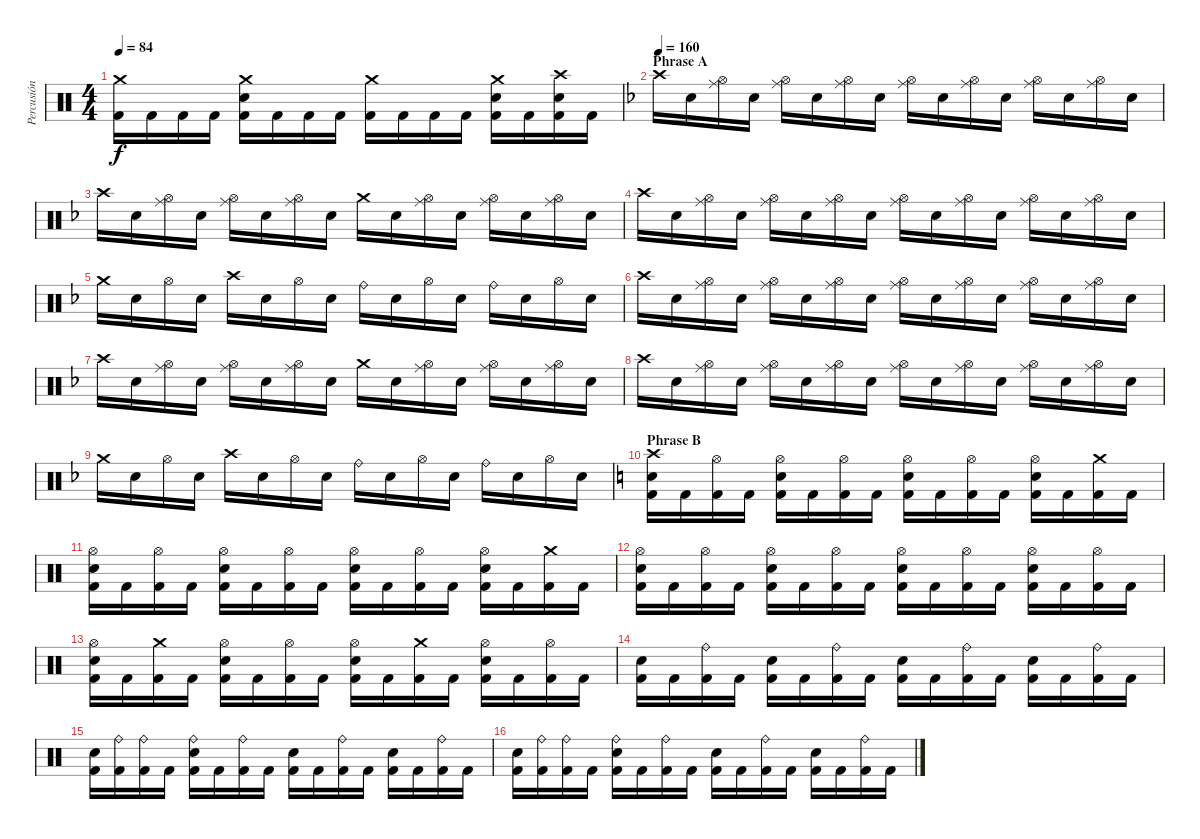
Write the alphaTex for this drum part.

\track ("Percusión" "Percusión") {instrument percussion}
\staff {score}
\articulation defaults
\ts (4 4)
\tempo 84
\clef neutral
\ks c
("Crash medium (hit)" "Kick (hit) 2").16{dy f} "Kick (hit) 2".16 "Kick (hit) 2".16 "Kick (hit) 2".16 ("Crash medium (hit)" "Electric Snare (hit)" "Kick (hit) 2").16 "Kick (hit) 2".16 "Kick (hit) 2".16 "Kick (hit) 2".16 ("Crash medium (hit)" "Kick (hit) 2").16 "Kick (hit) 2".16 "Kick (hit) 2".16 "Kick (hit) 2".16 ("Crash medium (hit)" "Electric Snare (hit)" "Kick (hit) 2").16 "Kick (hit) 2".16 ("Crash high (hit)" "Electric Snare (hit)" "Kick (hit) 2").16 "Kick (hit) 2".16 |
\section ("" "Phrase A")
\tempo 160
\ks f "Crash high (hit)".16 "Electric Snare (hit)".16
("Ride (middle)" "Hi-Hat (open)").16 "Electric Snare (hit)".16 ("Ride (middle)" "Hi-Hat (open)").16 "Electric Snare (hit)".16 ("Ride (middle)" "Hi-Hat (open)").16 "Electric Snare (hit)".16 ("Ride (middle)" "Hi-Hat (open)").16 "Electric Snare (hit)".16 ("Ride (middle)" "Hi-Hat (open)").16 "Electric Snare (hit)".16 ("Ride (middle)" "Hi-Hat (open)").16 "Electric Snare (hit)".16 ("Ride (middle)" "Hi-Hat (open)").16 "Electric Snare (hit)".16 |
"Crash high (hit)".16 "Electric Snare (hit)".16 ("Ride (middle)" "Hi-Hat (open)").16 "Electric Snare (hit)".16 ("Ride (middle)" "Hi-Hat (open)").16 "Electric Snare (hit)".16 ("Ride (middle)" "Hi-Hat (open)").16 "Electric Snare (hit)".16 "Crash medium (hit)".16 "Electric Snare (hit)".16 ("Ride (middle)" "Hi-Hat (open)").16 "Electric Snare (hit)".16 ("Ride (middle)" "Hi-Hat (open)").16 "Electric Snare (hit)".16 ("Ride (middle)" "Hi-Hat (open)").16 "Electric Snare (hit)".16 |
"Crash high (hit)".16 "Electric Snare (hit)".16 ("Ride (middle)" "Hi-Hat (open)").16 "Electric Snare (hit)".16 ("Ride (middle)" "Hi-Hat (open)").16 "Electric Snare (hit)".16 ("Ride (middle)" "Hi-Hat (open)").16 "Electric Snare (hit)".16 ("Ride (middle)" "Hi-Hat (open)").16 "Electric Snare (hit)".16 ("Ride (middle)" "Hi-Hat (open)").16 "Electric Snare (hit)".16 ("Ride (middle)" "Hi-Hat (open)").16 "Electric Snare (hit)".16 ("Ride (middle)" "Hi-Hat (open)").16 "Electric Snare (hit)".16 |
"Crash medium (hit)".16 "Electric Snare (hit)".16 "Hi-Hat (open)".16 "Electric Snare (hit)".16 "Crash high (hit)".16 "Electric Snare (hit)".16 "Hi-Hat (open)".16 "Electric Snare (hit)".16 "Ride (bell)".16 "Electric Snare (hit)".16 "Hi-Hat (open)".16 "Electric Snare (hit)".16 "Ride (bell)".16 "Electric Snare (hit)".16 "Hi-Hat (open)".16 "Electric Snare (hit)".16 |
"Crash high (hit)".16 "Electric Snare (hit)".16 ("Ride (middle)" "Hi-Hat (open)").16 "Electric Snare (hit)".16 ("Ride (middle)" "Hi-Hat (open)").16 "Electric Snare (hit)".16 ("Ride (middle)" "Hi-Hat (open)").16 "Electric Snare (hit)".16 ("Ride (middle)" "Hi-Hat (open)").16 "Electric Snare (hit)".16 ("Ride (middle)" "Hi-Hat (open)").16 "Electric Snare (hit)".16 ("Ride (middle)" "Hi-Hat (open)").16 "Electric Snare (hit)".16 ("Ride (middle)" "Hi-Hat (open)").16 "Electric Snare (hit)".16 |
"Crash high (hit)".16 "Electric Snare (hit)".16 ("Ride (middle)" "Hi-Hat (open)").16 "Electric Snare (hit)".16 ("Ride (middle)" "Hi-Hat (open)").16 "Electric Snare (hit)".16 ("Ride (middle)" "Hi-Hat (open)").16 "Electric Snare (hit)".16 "Crash medium (hit)".16 "Electric Snare (hit)".16 ("Ride (middle)" "Hi-Hat (open)").16 "Electric Snare (hit)".16 ("Ride (middle)" "Hi-Hat (open)").16 "Electric Snare (hit)".16 ("Ride (middle)" "Hi-Hat (open)").16 "Electric Snare (hit)".16 |
"Crash high (hit)".16 "Electric Snare (hit)".16 ("Ride (middle)" "Hi-Hat (open)").16 "Electric Snare (hit)".16 ("Ride (middle)" "Hi-Hat (open)").16 "Electric Snare (hit)".16 ("Ride (middle)" "Hi-Hat (open)").16 "Electric Snare (hit)".16 ("Ride (middle)" "Hi-Hat (open)").16 "Electric Snare (hit)".16 ("Ride (middle)" "Hi-Hat (open)").16 "Electric Snare (hit)".16 ("Ride (middle)" "Hi-Hat (open)").16 "Electric Snare (hit)".16 ("Ride (middle)" "Hi-Hat (open)").16 "Electric Snare (hit)".16 |
"Crash medium (hit)".16 "Electric Snare (hit)".16 "Hi-Hat (open)".16 "Electric Snare (hit)".16 "Crash high (hit)".16 "Electric Snare (hit)".16 "Hi-Hat (open)".16 "Electric Snare (hit)".16 "Ride (bell)".16 "Electric Snare (hit)".16 "Hi-Hat (open)".16 "Electric Snare (hit)".16 "Ride (bell)".16 "Electric Snare (hit)".16 "Hi-Hat (open)".16 "Electric Snare (hit)".16 |
\section ("" "Phrase B")
\ks c
("Electric Snare (hit)" "Crash high (hit)" "Kick (hit) 2").16 "Kick (hit) 2".16 ("Hi-Hat (open)" "Kick (hit) 2").16 "Kick (hit) 2".16 ("Electric Snare (hit)" "Hi-Hat (open)" "Kick (hit) 2").16 "Kick (hit) 2".16 ("Hi-Hat (open)" "Kick (hit) 2").16 "Kick (hit) 2".16 ("Electric Snare (hit)" "Hi-Hat (open)" "Kick (hit) 2").16 "Kick (hit) 2".16 ("Hi-Hat (open)" "Kick (hit) 2").16 "Kick (hit) 2".16 ("Electric Snare (hit)" "Hi-Hat (open)" "Kick (hit) 2").16 "Kick (hit) 2".16 ("Crash medium (hit)" "Kick (hit) 2").16 "Kick (hit) 2".16 |
("Electric Snare (hit)" "Hi-Hat (open)" "Kick (hit) 2").16 "Kick (hit) 2".16 ("Hi-Hat (open)" "Kick (hit) 2").16 "Kick (hit) 2".16 ("Electric Snare (hit)" "Hi-Hat (open)" "Kick (hit) 2").16 "Kick (hit) 2".16 ("Hi-Hat (open)" "Kick (hit) 2").16 "Kick (hit) 2".16 ("Electric Snare (hit)" "Hi-Hat (open)" "Kick (hit) 2").16 "Kick (hit) 2".16 ("Hi-Hat (open)" "Kick (hit) 2").16 "Kick (hit) 2".16 ("Electric Snare (hit)" "Hi-Hat (open)" "Kick (hit) 2").16 "Kick (hit) 2".16 ("Crash medium (hit)" "Kick (hit) 2").16 "Kick (hit) 2".16 |
("Electric Snare (hit)" "Hi-Hat (open)" "Kick (hit) 2").16 "Kick (hit) 2".16 ("Hi-Hat (open)" "Kick (hit) 2").16 "Kick (hit) 2".16 ("Electric Snare (hit)" "Hi-Hat (open)" "Kick (hit) 2").16 "Kick (hit) 2".16 ("Hi-Hat (open)" "Kick (hit) 2").16 "Kick (hit) 2".16 ("Electric Snare (hit)" "Hi-Hat (open)" "Kick (hit) 2").16 "Kick (hit) 2".16 ("Hi-Hat (open)" "Kick (hit) 2").16 "Kick (hit) 2".16 ("Electric Snare (hit)" "Hi-Hat (open)" "Kick (hit) 2").16 "Kick (hit) 2".16 ("Hi-Hat (open)" "Kick (hit) 2").16 "Kick (hit) 2".16 |
("Electric Snare (hit)" "Hi-Hat (open)" "Kick (hit) 2").16 "Kick (hit) 2".16 ("Crash medium (hit)" "Kick (hit) 2").16 "Kick (hit) 2".16 ("Electric Snare (hit)" "Hi-Hat (open)" "Kick (hit) 2").16 "Kick (hit) 2".16 ("Hi-Hat (open)" "Kick (hit) 2").16 "Kick (hit) 2".16 ("Electric Snare (hit)" "Hi-Hat (open)" "Kick (hit) 2").16 "Kick (hit) 2".16 ("Crash medium (hit)" "Kick (hit) 2").16 "Kick (hit) 2".16 ("Electric Snare (hit)" "Hi-Hat (open)" "Kick (hit) 2").16 "Kick (hit) 2".16 ("Hi-Hat (open)" "Kick (hit) 2").16 "Kick (hit) 2".16 |
("Electric Snare (hit)" "Kick (hit) 2").16 "Kick (hit) 2".16 ("Ride (bell)" "Kick (hit) 2").16 "Kick (hit) 2".16 ("Electric Snare (hit)" "Kick (hit) 2").16 "Kick (hit) 2".16 ("Ride (bell)" "Kick (hit) 2").16 "Kick (hit) 2".16 ("Electric Snare (hit)" "Kick (hit) 2").16 "Kick (hit) 2".16 ("Ride (bell)" "Kick (hit) 2").16 "Kick (hit) 2".16 ("Electric Snare (hit)" "Kick (hit) 2").16 "Kick (hit) 2".16 ("Ride (bell)" "Kick (hit) 2").16 "Kick (hit) 2".16 |
("Electric Snare (hit)" "Kick (hit) 2").16 ("Ride (bell)" "Kick (hit) 2").16 ("Ride (bell)" "Kick (hit) 2").16 "Kick (hit) 2".16 ("Electric Snare (hit)" "Ride (bell)" "Kick (hit) 2").16 "Kick (hit) 2".16 ("Ride (bell)" "Kick (hit) 2").16 "Kick (hit) 2".16 ("Electric Snare (hit)" "Kick (hit) 2").16 "Kick (hit) 2".16 ("Ride (bell)" "Kick (hit) 2").16 "Kick (hit) 2".16 ("Electric Snare (hit)" "Kick (hit) 2").16 "Kick (hit) 2".16 ("Ride (bell)" "Kick (hit) 2").16 "Kick (hit) 2".16 |
("Electric Snare (hit)" "Kick (hit) 2").16 ("Ride (bell)" "Kick (hit) 2").16 ("Ride (bell)" "Kick (hit) 2").16 "Kick (hit) 2".16 ("Electric Snare (hit)" "Ride (bell)" "Kick (hit) 2").16 "Kick (hit) 2".16 ("Ride (bell)" "Kick (hit) 2").16 "Kick (hit) 2".16 ("Electric Snare (hit)" "Kick (hit) 2").16 "Kick (hit) 2".16 ("Ride (bell)" "Kick (hit) 2").16 "Kick (hit) 2".16 ("Electric Snare (hit)" "Kick (hit) 2").16 "Kick (hit) 2".16 ("Ride (bell)" "Kick (hit) 2").16 "Kick (hit) 2".16
